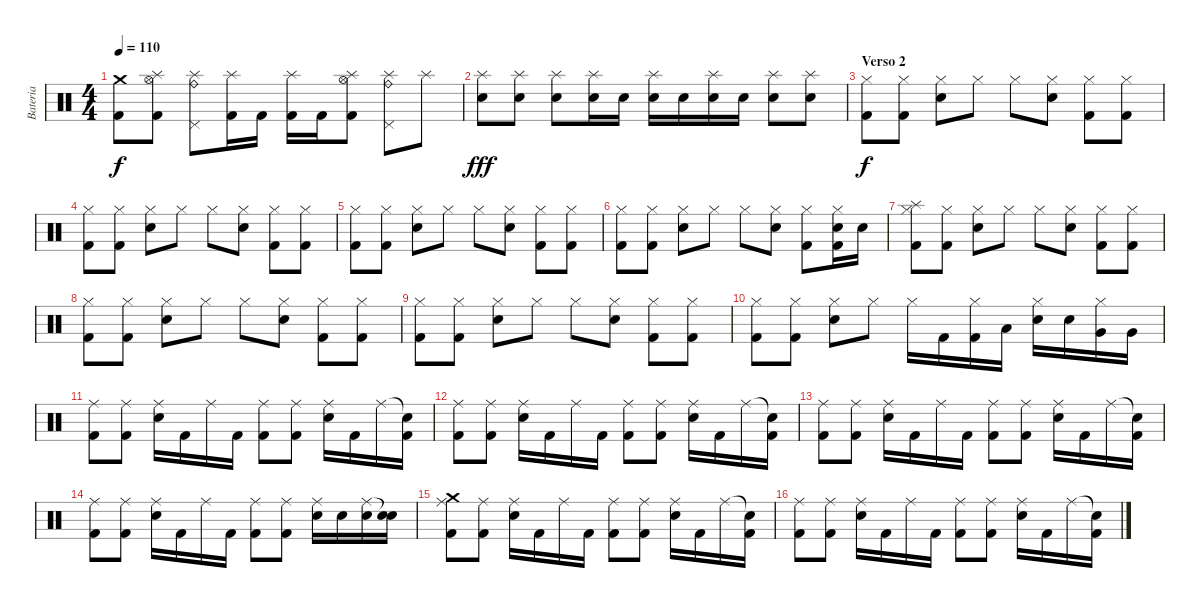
\track ("Bateria" "Bateria") {instrument percussion}
\staff {score}
\articulation defaults
\ts (4 4)
\tempo 110
\clef neutral
\ks c
("Crash medium (hit)" "Kick (hit) 2").8{dy f} ("Splash (hit)" "Kick (hit) 2" "Hi-Hat (open)").8 ("Splash (hit)" "Ride (bell)" "Pedal Hi-Hat (hit)").8 ("Splash (hit)" "Kick (hit) 2").16 "Kick (hit) 2".16 ("Splash (hit)" "Kick (hit) 2").16 "Kick (hit) 2".16 ("Splash (hit)" "Kick (hit) 2" "Hi-Hat (open)").8 ("Splash (hit)" "Pedal Hi-Hat (hit)" "Ride (bell)").8 "Splash (hit)".8 |
("Splash (hit)" "Snare (hit) 2").8{dy fff} ("Splash (hit)" "Snare (hit) 2").8 ("Splash (hit)" "Snare (hit) 2").8 ("Splash (hit)" "Snare (hit) 2").16 "Snare (hit) 2".16 ("Splash (hit)" "Snare (hit) 2").16 "Snare (hit) 2".16 ("Splash (hit)" "Snare (hit) 2").16 "Snare (hit) 2".16 ("Splash (hit)" "Snare (hit) 2").8 ("Splash (hit)" "Snare (hit) 2").8 |
\section ("" "Verso 2")
("Hi-Hat (closed)" "Kick (hit) 2").8{dy f} ("Hi-Hat (closed)" "Kick (hit) 2").8 ("Hi-Hat (closed)" "Snare (hit) 2").8 "Hi-Hat (closed)".8 "Hi-Hat (closed)".8 ("Hi-Hat (closed)" "Snare (hit) 2").8 ("Hi-Hat (closed)" "Kick (hit) 2").8 ("Hi-Hat (closed)" "Kick (hit) 2").8 |
("Hi-Hat (closed)" "Kick (hit) 2").8 ("Hi-Hat (closed)" "Kick (hit) 2").8 ("Hi-Hat (closed)" "Snare (hit) 2").8 "Hi-Hat (closed)".8 "Hi-Hat (closed)".8 ("Hi-Hat (closed)" "Snare (hit) 2").8 ("Hi-Hat (closed)" "Kick (hit) 2").8 ("Hi-Hat (closed)" "Kick (hit) 2").8 |
("Hi-Hat (closed)" "Kick (hit) 2").8 ("Hi-Hat (closed)" "Kick (hit) 2").8 ("Hi-Hat (closed)" "Snare (hit) 2").8 "Hi-Hat (closed)".8 "Hi-Hat (closed)".8 ("Hi-Hat (closed)" "Snare (hit) 2").8 ("Hi-Hat (closed)" "Kick (hit) 2").8 ("Hi-Hat (closed)" "Kick (hit) 2").8 |
("Hi-Hat (closed)" "Kick (hit) 2").8 ("Hi-Hat (closed)" "Kick (hit) 2").8 ("Hi-Hat (closed)" "Snare (hit) 2").8 "Hi-Hat (closed)".8 "Hi-Hat (closed)".8 ("Hi-Hat (closed)" "Snare (hit) 2").8 ("Hi-Hat (closed)" "Kick (hit) 2").8 ("Hi-Hat (closed)" "Kick (hit) 2" "Snare (hit) 2").16 "Snare (hit) 2".16 |
("Hi-Hat (closed)" "Kick (hit) 2" "Splash (hit)").8 ("Hi-Hat (closed)" "Kick (hit) 2").8 ("Hi-Hat (closed)" "Snare (hit) 2").8 "Hi-Hat (closed)".8 "Hi-Hat (closed)".8 ("Hi-Hat (closed)" "Snare (hit) 2").8 ("Hi-Hat (closed)" "Kick (hit) 2").8 ("Hi-Hat (closed)" "Kick (hit) 2").8 |
("Hi-Hat (closed)" "Kick (hit) 2").8 ("Hi-Hat (closed)" "Kick (hit) 2").8 ("Hi-Hat (closed)" "Snare (hit) 2").8 "Hi-Hat (closed)".8 "Hi-Hat (closed)".8 ("Hi-Hat (closed)" "Snare (hit) 2").8 ("Hi-Hat (closed)" "Kick (hit) 2").8 ("Hi-Hat (closed)" "Kick (hit) 2").8 |
("Hi-Hat (closed)" "Kick (hit) 2").8 ("Hi-Hat (closed)" "Kick (hit) 2").8 ("Hi-Hat (closed)" "Snare (hit) 2").8 "Hi-Hat (closed)".8 "Hi-Hat (closed)".8 ("Hi-Hat (closed)" "Snare (hit) 2").8 ("Hi-Hat (closed)" "Kick (hit) 2").8 ("Hi-Hat (closed)" "Kick (hit) 2").8 |
("Hi-Hat (closed)" "Kick (hit) 2").8 ("Hi-Hat (closed)" "Kick (hit) 2").8 ("Hi-Hat (closed)" "Snare (hit) 2").8 "Hi-Hat (closed)".8 "Hi-Hat (closed)".16 "Kick (hit) 2".16 ("Hi-Hat (closed)" "Kick (hit) 2").16 "Low Tom (hit)".16 ("Hi-Hat (closed)" "Snare (hit) 2").16 "Snare (hit) 2".16 ("Hi-Hat (closed)" "Very Low Tom (hit)").16 "Very Low Tom (hit)".16 |
("Ride (middle)" "Kick (hit) 2").8 ("Ride (middle)" "Kick (hit) 2").8 ("Ride (middle)" "Snare (hit) 2").16 "Kick (hit) 2".16 "Ride (middle)".16 "Kick (hit) 2".16 ("Ride (middle)" "Kick (hit) 2").8 ("Ride (middle)" "Kick (hit) 2").8 ("Ride (middle)" "Snare (hit) 2").16 "Kick (hit) 2".16 "Ride (middle)".16 ("Snare (hit)"{t} "Kick (hit) 2").16 |
("Ride (middle)" "Kick (hit) 2").8 ("Ride (middle)" "Kick (hit) 2").8 ("Ride (middle)" "Snare (hit) 2").16 "Kick (hit) 2".16 "Ride (middle)".16 "Kick (hit) 2".16 ("Ride (middle)" "Kick (hit) 2").8 ("Ride (middle)" "Kick (hit) 2").8 ("Ride (middle)" "Snare (hit) 2").16 "Kick (hit) 2".16 "Ride (middle)".16 ("Snare (hit)"{t} "Kick (hit) 2").16 |
("Ride (middle)" "Kick (hit) 2").8 ("Ride (middle)" "Kick (hit) 2").8 ("Ride (middle)" "Snare (hit) 2").16 "Kick (hit) 2".16 "Ride (middle)".16 "Kick (hit) 2".16 ("Ride (middle)" "Kick (hit) 2").8 ("Ride (middle)" "Kick (hit) 2").8 ("Ride (middle)" "Snare (hit) 2").16 "Kick (hit) 2".16 "Ride (middle)".16 ("Snare (hit)"{t} "Kick (hit) 2").16 |
("Ride (middle)" "Kick (hit) 2").8 ("Ride (middle)" "Kick (hit) 2").8 ("Ride (middle)" "Snare (hit) 2").16 "Kick (hit) 2".16 "Ride (middle)".16 "Kick (hit) 2".16 ("Ride (middle)" "Kick (hit) 2").8 ("Ride (middle)" "Kick (hit) 2").8 ("Ride (middle)" "Snare (hit) 2").16 "Snare (hit) 2".16 ("Ride (middle)" "Snare (hit) 2").16 ("Snare (hit)"{t} "Snare (hit) 2").16 |
("Ride (middle)" "Kick (hit) 2" "Crash medium (hit)").8 ("Ride (middle)" "Kick (hit) 2").8 ("Ride (middle)" "Snare (hit) 2").16 "Kick (hit) 2".16 "Ride (middle)".16 "Kick (hit) 2".16 ("Ride (middle)" "Kick (hit) 2").8 ("Ride (middle)" "Kick (hit) 2").8 ("Ride (middle)" "Snare (hit) 2").16 "Kick (hit) 2".16 "Ride (middle)".16 ("Snare (hit)"{t} "Kick (hit) 2").16 |
("Ride (middle)" "Kick (hit) 2").8 ("Ride (middle)" "Kick (hit) 2").8 ("Ride (middle)" "Snare (hit) 2").16 "Kick (hit) 2".16 "Ride (middle)".16 "Kick (hit) 2".16 ("Ride (middle)" "Kick (hit) 2").8 ("Ride (middle)" "Kick (hit) 2").8 ("Ride (middle)" "Snare (hit) 2").16 "Kick (hit) 2".16 "Ride (middle)".16 ("Snare (hit)"{t} "Kick (hit) 2").16
